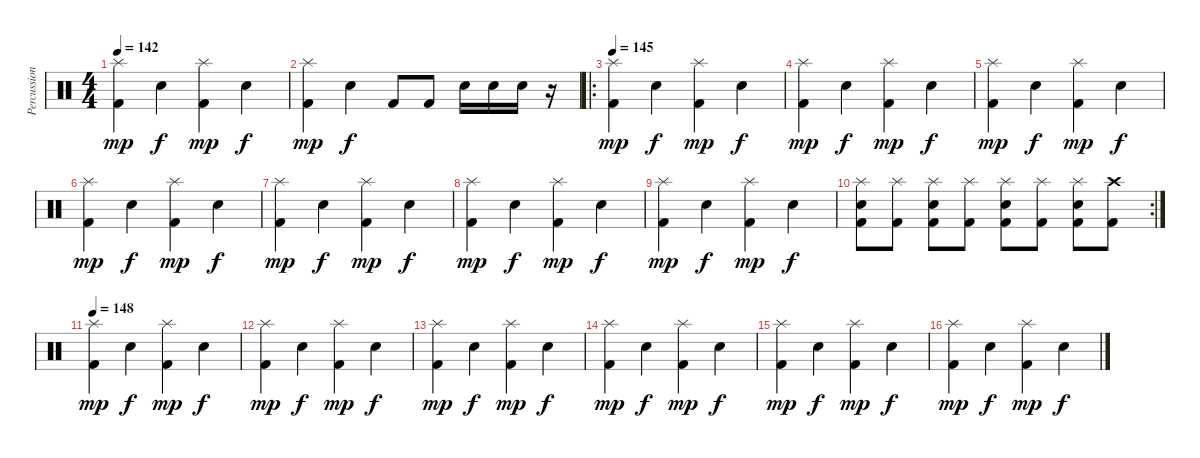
\track ("Percussion" "Percussion") {instrument percussion}
\staff {score}
\articulation defaults
\ts (4 4)
\tempo 142
\clef neutral
\ks c
("Splash (hit)" "Kick (hit) 2").4{dy mp} "Snare (hit) 2".4{dy f} ("Splash (hit)" "Kick (hit) 2").4{dy mp} "Snare (hit) 2".4{dy f} |
("Splash (hit)" "Kick (hit) 2").4{dy mp} "Snare (hit) 2".4{dy f} "Kick (hit) 2".8 "Kick (hit) 2".8 "Snare (hit) 2".16 "Snare (hit) 2".16 "Snare (hit) 2".16 r.16 |
\ro
\tempo 145
("Splash (hit)" "Kick (hit) 2").4{dy mp} "Snare (hit) 2".4{dy f} ("Splash (hit)" "Kick (hit) 2").4{dy mp} "Snare (hit) 2".4{dy f} |
("Splash (hit)" "Kick (hit) 2").4{dy mp} "Snare (hit) 2".4{dy f} ("Splash (hit)" "Kick (hit) 2").4{dy mp} "Snare (hit) 2".4{dy f} |
("Splash (hit)" "Kick (hit) 2").4{dy mp} "Snare (hit) 2".4{dy f} ("Splash (hit)" "Kick (hit) 2").4{dy mp} "Snare (hit) 2".4{dy f} |
("Splash (hit)" "Kick (hit) 2").4{dy mp} "Snare (hit) 2".4{dy f} ("Splash (hit)" "Kick (hit) 2").4{dy mp} "Snare (hit) 2".4{dy f} |
("Splash (hit)" "Kick (hit) 2").4{dy mp} "Snare (hit) 2".4{dy f} ("Splash (hit)" "Kick (hit) 2").4{dy mp} "Snare (hit) 2".4{dy f} |
("Splash (hit)" "Kick (hit) 2").4{dy mp} "Snare (hit) 2".4{dy f} ("Splash (hit)" "Kick (hit) 2").4{dy mp} "Snare (hit) 2".4{dy f} |
("Splash (hit)" "Kick (hit) 2").4{dy mp} "Snare (hit) 2".4{dy f} ("Splash (hit)" "Kick (hit) 2").4{dy mp} "Snare (hit) 2".4{dy f} |
\rc 2
("Splash (hit)" "Snare (hit) 2" "Kick (hit) 2").8 ("Splash (hit)" "Kick (hit) 2").8 ("Splash (hit)" "Snare (hit) 2" "Kick (hit) 2").8 ("Splash (hit)" "Kick (hit) 2").8 ("Splash (hit)" "Snare (hit) 2" "Kick (hit) 2").8 ("Splash (hit)" "Kick (hit) 2").8 ("Splash (hit)" "Snare (hit) 2" "Kick (hit) 2").8 ("Crash high (hit)" "Kick (hit) 2").8 |
\tempo 148
("Splash (hit)" "Kick (hit) 2").4{dy mp} "Snare (hit) 2".4{dy f} ("Splash (hit)" "Kick (hit) 2").4{dy mp} "Snare (hit) 2".4{dy f} |
("Splash (hit)" "Kick (hit) 2").4{dy mp} "Snare (hit) 2".4{dy f} ("Splash (hit)" "Kick (hit) 2").4{dy mp} "Snare (hit) 2".4{dy f} |
("Splash (hit)" "Kick (hit) 2").4{dy mp} "Snare (hit) 2".4{dy f} ("Splash (hit)" "Kick (hit) 2").4{dy mp} "Snare (hit) 2".4{dy f} |
("Splash (hit)" "Kick (hit) 2").4{dy mp} "Snare (hit) 2".4{dy f} ("Splash (hit)" "Kick (hit) 2").4{dy mp} "Snare (hit) 2".4{dy f} |
("Splash (hit)" "Kick (hit) 2").4{dy mp} "Snare (hit) 2".4{dy f} ("Splash (hit)" "Kick (hit) 2").4{dy mp} "Snare (hit) 2".4{dy f} |
("Splash (hit)" "Kick (hit) 2").4{dy mp} "Snare (hit) 2".4{dy f} ("Splash (hit)" "Kick (hit) 2").4{dy mp} "Snare (hit) 2".4{dy f}
